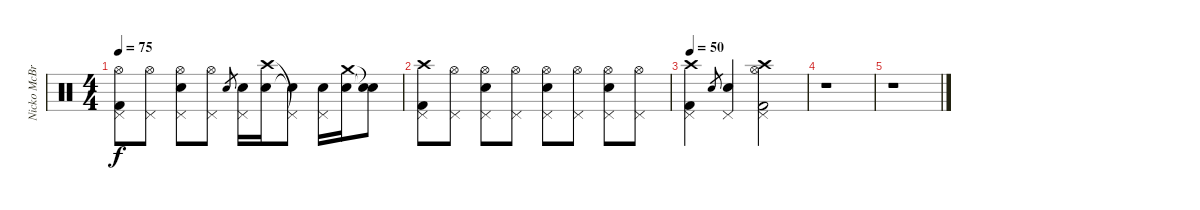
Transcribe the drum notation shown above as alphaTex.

\track ("Nicko McBrain" "Nicko McBr") {instrument percussion}
\staff {score}
\articulation defaults
\ts (4 4)
\tempo 75
\clef neutral
\ks c
("Kick (hit) 2" "Pedal Hi-Hat (hit)" "Hi-Hat (open)").8{dy f} ("Pedal Hi-Hat (hit)" "Hi-Hat (open)").8 ("Snare (hit) 2" "Pedal Hi-Hat (hit)" "Hi-Hat (open)").8 ("Pedal Hi-Hat (hit)" "Hi-Hat (open)").8 "Snare (hit) 2".8{gr} ("Snare (hit) 2" "Pedal Hi-Hat (hit)").16 ("Snare (hit) 2" "Crash high (hit)").16 ("Snare (hit) 2"{t} "Pedal Hi-Hat (hit)"{t}).8 ("Snare (hit) 2" "Pedal Hi-Hat (hit)").16 ("Snare (hit) 2" "Crash medium (hit)").16 ("Snare (hit)"{t} "Snare (hit)"{t}).8 |
("Kick (hit) 2" "Pedal Hi-Hat (hit)" "Crash high (hit)").8 ("Pedal Hi-Hat (hit)" "Hi-Hat (open)").8 ("Snare (hit) 2" "Pedal Hi-Hat (hit)" "Hi-Hat (open)").8 ("Pedal Hi-Hat (hit)" "Hi-Hat (open)").8 ("Snare (hit) 2" "Pedal Hi-Hat (hit)" "Hi-Hat (open)").8 ("Pedal Hi-Hat (hit)" "Hi-Hat (open)").8 ("Snare (hit) 2" "Pedal Hi-Hat (hit)" "Hi-Hat (open)").8 ("Pedal Hi-Hat (hit)" "Hi-Hat (open)").8 |
\tempo 50
("Kick (hit) 2" "Pedal Hi-Hat (hit)" "Crash high (hit)").4 "Snare (hit) 2".8{gr} ("Snare (hit) 2" "Pedal Hi-Hat (hit)").4 ("Kick (hit) 2" "Pedal Hi-Hat (hit)" "Hi-Hat (open)" "Crash high (hit)").2 |
r.1 |
r.1
